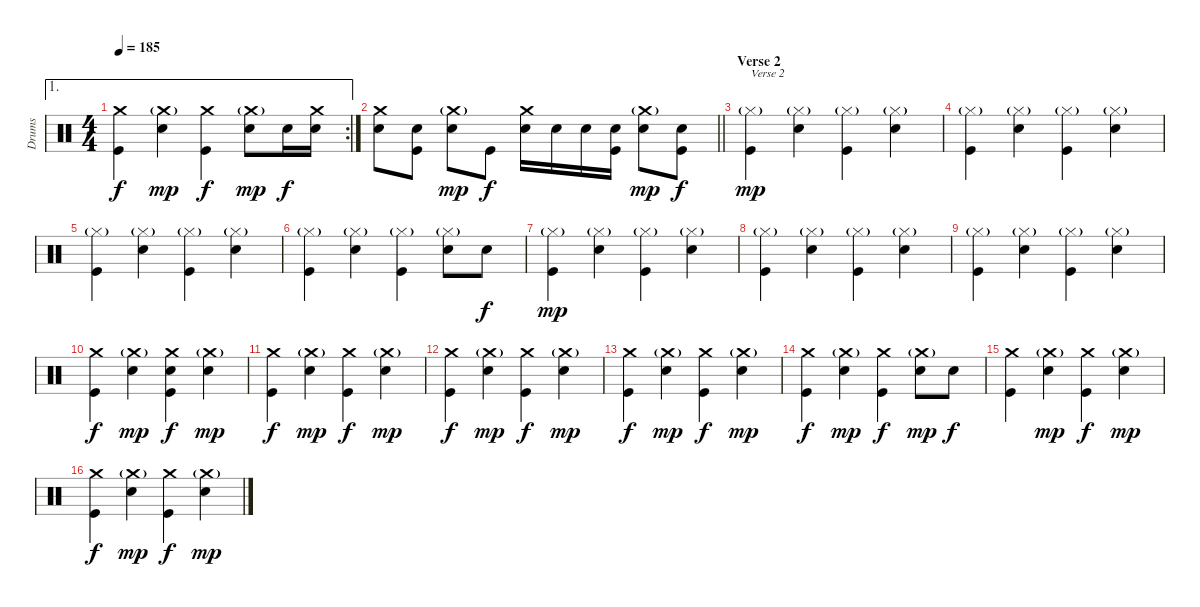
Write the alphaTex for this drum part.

\track ("Drums" "Drums") {instrument percussion}
\staff {score}
\articulation defaults
\ae 1
\rc 2
\ts (4 4)
\tempo 185
\clef neutral
\ks c
("Crash medium (hit)" "Kick (hit)").4{dy f} ("Crash medium (hit)"{g} "Snare (hit) 2").4{dy mp} ("Crash medium (hit)" "Kick (hit)").4{dy f} ("Crash medium (hit)"{g} "Snare (hit) 2").8{dy mp} "Snare (hit) 2".16{dy f} ("Crash medium (hit)" "Snare (hit) 2").16 |
\barLineRight lightlight
("Crash medium (hit)" "Snare (hit) 2").8 ("Snare (hit) 2" "Kick (hit)").8 ("Crash medium (hit)"{g} "Snare (hit) 2").8{dy mp} "Kick (hit)".8{dy f} ("Crash medium (hit)" "Snare (hit) 2").16 "Snare (hit) 2".16 "Snare (hit) 2".16 ("Snare (hit) 2" "Kick (hit)").16 ("Crash medium (hit)"{g} "Snare (hit) 2").8{dy mp} ("Snare (hit) 2" "Kick (hit)").8{dy f} |
\section ("" "Verse 2")
("Hi-Hat (closed)"{g} "Kick (hit)").4{txt "Verse 2" dy mp} ("Hi-Hat (closed)"{g} "Snare (hit) 2").4 ("Hi-Hat (closed)"{g} "Kick (hit)").4 ("Hi-Hat (closed)"{g} "Snare (hit) 2").4 |
("Hi-Hat (closed)"{g} "Kick (hit)").4 ("Hi-Hat (closed)"{g} "Snare (hit) 2").4 ("Hi-Hat (closed)"{g} "Kick (hit)").4 ("Hi-Hat (closed)"{g} "Snare (hit) 2").4 |
("Hi-Hat (closed)"{g} "Kick (hit)").4 ("Hi-Hat (closed)"{g} "Snare (hit) 2").4 ("Hi-Hat (closed)"{g} "Kick (hit)").4 ("Hi-Hat (closed)"{g} "Snare (hit) 2").4 |
("Hi-Hat (closed)"{g} "Kick (hit)").4 ("Hi-Hat (closed)"{g} "Snare (hit) 2").4 ("Hi-Hat (closed)"{g} "Kick (hit)").4 ("Hi-Hat (closed)"{g} "Electric Snare (hit)").8 "Snare (hit) 2".8{dy f} |
("Hi-Hat (closed)"{g} "Kick (hit)").4{dy mp} ("Hi-Hat (closed)"{g} "Snare (hit) 2").4 ("Hi-Hat (closed)"{g} "Kick (hit)").4 ("Hi-Hat (closed)"{g} "Snare (hit) 2").4 |
("Hi-Hat (closed)"{g} "Kick (hit)").4 ("Hi-Hat (closed)"{g} "Snare (hit) 2").4 ("Hi-Hat (closed)"{g} "Kick (hit)").4 ("Hi-Hat (closed)"{g} "Snare (hit) 2").4 |
("Hi-Hat (closed)"{g} "Kick (hit)").4 ("Hi-Hat (closed)"{g} "Snare (hit) 2").4 ("Hi-Hat (closed)"{g} "Kick (hit)").4 ("Hi-Hat (closed)"{g} "Snare (hit) 2").4 |
("Crash medium (hit)" "Kick (hit)").4{dy f} ("Crash medium (hit)"{g} "Snare (hit) 2").4{dy mp} ("Crash medium (hit)" "Snare (hit) 2" "Kick (hit)").4{dy f} ("Crash medium (hit)"{g} "Snare (hit) 2").4{dy mp} |
("Crash medium (hit)" "Kick (hit)").4{dy f} ("Crash medium (hit)"{g} "Snare (hit) 2").4{dy mp} ("Crash medium (hit)" "Kick (hit)").4{dy f} ("Crash medium (hit)"{g} "Snare (hit) 2").4{dy mp} |
("Crash medium (hit)" "Kick (hit)").4{dy f} ("Crash medium (hit)"{g} "Snare (hit) 2").4{dy mp} ("Crash medium (hit)" "Kick (hit)").4{dy f} ("Crash medium (hit)"{g} "Snare (hit) 2").4{dy mp} |
("Crash medium (hit)" "Kick (hit)").4{dy f} ("Crash medium (hit)"{g} "Snare (hit) 2").4{dy mp} ("Crash medium (hit)" "Kick (hit)").4{dy f} ("Crash medium (hit)"{g} "Snare (hit) 2").4{dy mp} |
("Crash medium (hit)" "Kick (hit)").4{dy f} ("Crash medium (hit)"{g} "Snare (hit) 2").4{dy mp} ("Crash medium (hit)" "Kick (hit)").4{dy f} ("Crash medium (hit)"{g} "Electric Snare (hit)").8{dy mp} "Snare (hit) 2".8{dy f} |
("Crash medium (hit)" "Kick (hit)").4 ("Crash medium (hit)"{g} "Snare (hit) 2").4{dy mp} ("Crash medium (hit)" "Kick (hit)").4{dy f} ("Crash medium (hit)"{g} "Snare (hit) 2").4{dy mp} |
("Crash medium (hit)" "Kick (hit)").4{dy f} ("Crash medium (hit)"{g} "Snare (hit) 2").4{dy mp} ("Crash medium (hit)" "Kick (hit)").4{dy f} ("Crash medium (hit)"{g} "Snare (hit) 2").4{dy mp}
